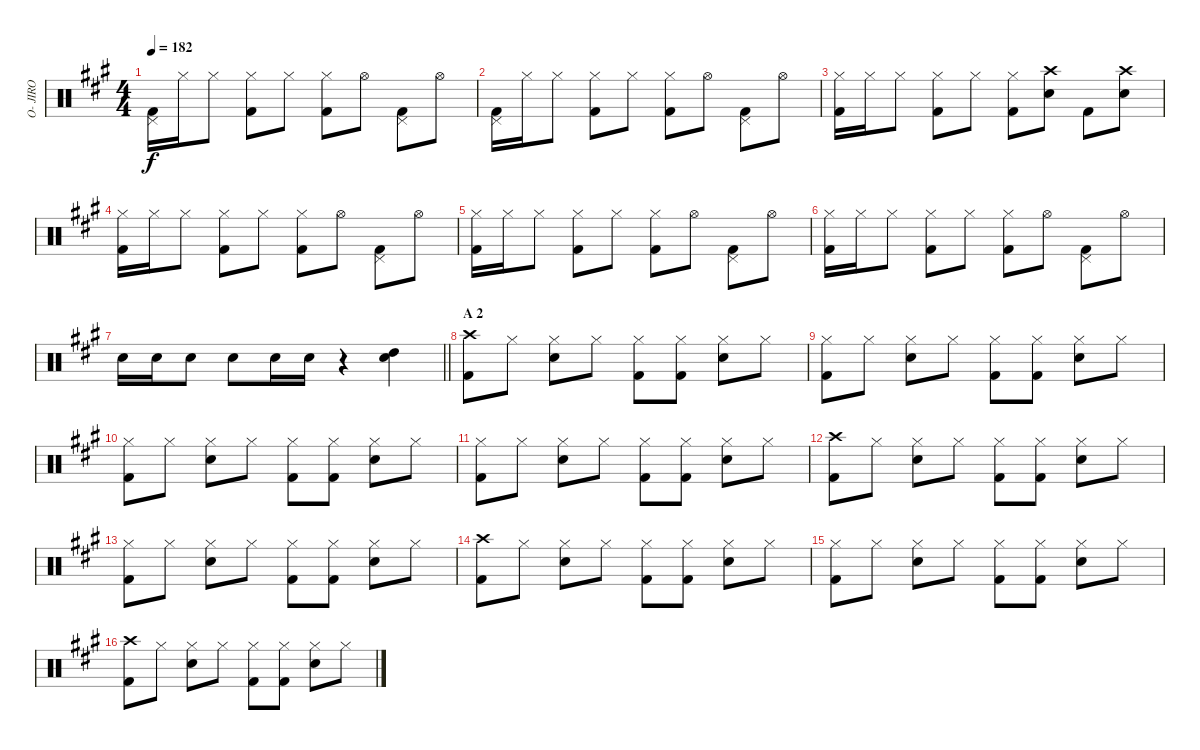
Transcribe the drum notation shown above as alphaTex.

\track ("O- JIRO" "O- JIRO") {instrument percussion}
\staff {score}
\articulation defaults
\ts (4 4)
\tempo 182
\clef neutral
\ks a
("Pedal Hi-Hat (hit)" "Kick (hit) 2").16{dy f} "Hi-Hat (closed)".16 "Hi-Hat (closed)".8 ("Hi-Hat (closed)" "Kick (hit) 2").8 "Hi-Hat (closed)".8 ("Hi-Hat (closed)" "Kick (hit) 2").8 "Hi-Hat (open)".8 ("Pedal Hi-Hat (hit)" "Kick (hit) 2").8 "Hi-Hat (open)".8 |
("Pedal Hi-Hat (hit)" "Kick (hit) 2").16 "Hi-Hat (closed)".16 "Hi-Hat (closed)".8 ("Hi-Hat (closed)" "Kick (hit) 2").8 "Hi-Hat (closed)".8 ("Hi-Hat (closed)" "Kick (hit) 2").8 "Hi-Hat (open)".8 ("Pedal Hi-Hat (hit)" "Kick (hit) 2").8 "Hi-Hat (open)".8 |
("Hi-Hat (closed)" "Kick (hit) 2").16 "Hi-Hat (closed)".16 "Hi-Hat (closed)".8 ("Hi-Hat (closed)" "Kick (hit) 2").8 "Hi-Hat (closed)".8 ("Hi-Hat (closed)" "Kick (hit) 2").8 ("Crash high (hit)" "Snare (hit) 2").8 "Kick (hit) 2".8 ("Crash high (hit)" "Snare (hit) 2").8 |
("Hi-Hat (closed)" "Kick (hit) 2").16 "Hi-Hat (closed)".16 "Hi-Hat (closed)".8 ("Hi-Hat (closed)" "Kick (hit) 2").8 "Hi-Hat (closed)".8 ("Hi-Hat (closed)" "Kick (hit) 2").8 "Hi-Hat (open)".8 ("Pedal Hi-Hat (hit)" "Kick (hit) 2").8 "Hi-Hat (open)".8 |
("Hi-Hat (closed)" "Kick (hit) 2").16 "Hi-Hat (closed)".16 "Hi-Hat (closed)".8 ("Hi-Hat (closed)" "Kick (hit) 2").8 "Hi-Hat (closed)".8 ("Hi-Hat (closed)" "Kick (hit) 2").8 "Hi-Hat (open)".8 ("Pedal Hi-Hat (hit)" "Kick (hit) 2").8 "Hi-Hat (open)".8 |
("Hi-Hat (closed)" "Kick (hit) 2").16 "Hi-Hat (closed)".16 "Hi-Hat (closed)".8 ("Hi-Hat (closed)" "Kick (hit) 2").8 "Hi-Hat (closed)".8 ("Hi-Hat (closed)" "Kick (hit) 2").8 "Hi-Hat (open)".8 ("Pedal Hi-Hat (hit)" "Kick (hit) 2").8 "Hi-Hat (open)".8 |
\barLineRight lightlight "Snare (hit) 2".16 "Snare (hit) 2".16 "Snare (hit) 2".8 "Snare (hit) 2".8 "Snare (hit) 2".16 "Snare (hit) 2".16
r.4 ("High Tom (hit)" "Snare (hit) 2").4 |
\section ("" "A 2")
("Crash high (hit)" "Kick (hit) 2").8 "Hi-Hat (closed)".8 ("Hi-Hat (closed)" "Snare (hit) 2").8 "Hi-Hat (closed)".8 ("Hi-Hat (closed)" "Kick (hit) 2").8 ("Hi-Hat (closed)" "Kick (hit) 2").8 ("Hi-Hat (closed)" "Snare (hit) 2").8 "Hi-Hat (closed)".8 |
("Hi-Hat (closed)" "Kick (hit) 2").8 "Hi-Hat (closed)".8 ("Hi-Hat (closed)" "Snare (hit) 2").8 "Hi-Hat (closed)".8 ("Hi-Hat (closed)" "Kick (hit) 2").8 ("Hi-Hat (closed)" "Kick (hit) 2").8 ("Hi-Hat (closed)" "Snare (hit) 2").8 "Hi-Hat (closed)".8 |
("Hi-Hat (closed)" "Kick (hit) 2").8 "Hi-Hat (closed)".8 ("Hi-Hat (closed)" "Snare (hit) 2").8 "Hi-Hat (closed)".8 ("Hi-Hat (closed)" "Kick (hit) 2").8 ("Hi-Hat (closed)" "Kick (hit) 2").8 ("Hi-Hat (closed)" "Snare (hit) 2").8 "Hi-Hat (closed)".8 |
("Hi-Hat (closed)" "Kick (hit) 2").8 "Hi-Hat (closed)".8 ("Hi-Hat (closed)" "Snare (hit) 2").8 "Hi-Hat (closed)".8 ("Hi-Hat (closed)" "Kick (hit) 2").8 ("Hi-Hat (closed)" "Kick (hit) 2").8 ("Hi-Hat (closed)" "Snare (hit) 2").8 "Hi-Hat (closed)".8 |
("Crash high (hit)" "Kick (hit) 2").8 "Hi-Hat (closed)".8 ("Hi-Hat (closed)" "Snare (hit) 2").8 "Hi-Hat (closed)".8 ("Hi-Hat (closed)" "Kick (hit) 2").8 ("Hi-Hat (closed)" "Kick (hit) 2").8 ("Hi-Hat (closed)" "Snare (hit) 2").8 "Hi-Hat (closed)".8 |
("Hi-Hat (closed)" "Kick (hit) 2").8 "Hi-Hat (closed)".8 ("Hi-Hat (closed)" "Snare (hit) 2").8 "Hi-Hat (closed)".8 ("Hi-Hat (closed)" "Kick (hit) 2").8 ("Hi-Hat (closed)" "Kick (hit) 2").8 ("Hi-Hat (closed)" "Snare (hit) 2").8 "Hi-Hat (closed)".8 |
("Crash high (hit)" "Kick (hit) 2").8 "Hi-Hat (closed)".8 ("Hi-Hat (closed)" "Snare (hit) 2").8 "Hi-Hat (closed)".8 ("Hi-Hat (closed)" "Kick (hit) 2").8 ("Hi-Hat (closed)" "Kick (hit) 2").8 ("Hi-Hat (closed)" "Snare (hit) 2").8 "Hi-Hat (closed)".8 |
("Hi-Hat (closed)" "Kick (hit) 2").8 "Hi-Hat (closed)".8 ("Hi-Hat (closed)" "Snare (hit) 2").8 "Hi-Hat (closed)".8 ("Hi-Hat (closed)" "Kick (hit) 2").8 ("Hi-Hat (closed)" "Kick (hit) 2").8 ("Hi-Hat (closed)" "Snare (hit) 2").8 "Hi-Hat (closed)".8 |
("Crash high (hit)" "Kick (hit) 2").8 "Hi-Hat (closed)".8 ("Hi-Hat (closed)" "Snare (hit) 2").8 "Hi-Hat (closed)".8 ("Hi-Hat (closed)" "Kick (hit) 2").8 ("Hi-Hat (closed)" "Kick (hit) 2").8 ("Hi-Hat (closed)" "Snare (hit) 2").8 "Hi-Hat (closed)".8
